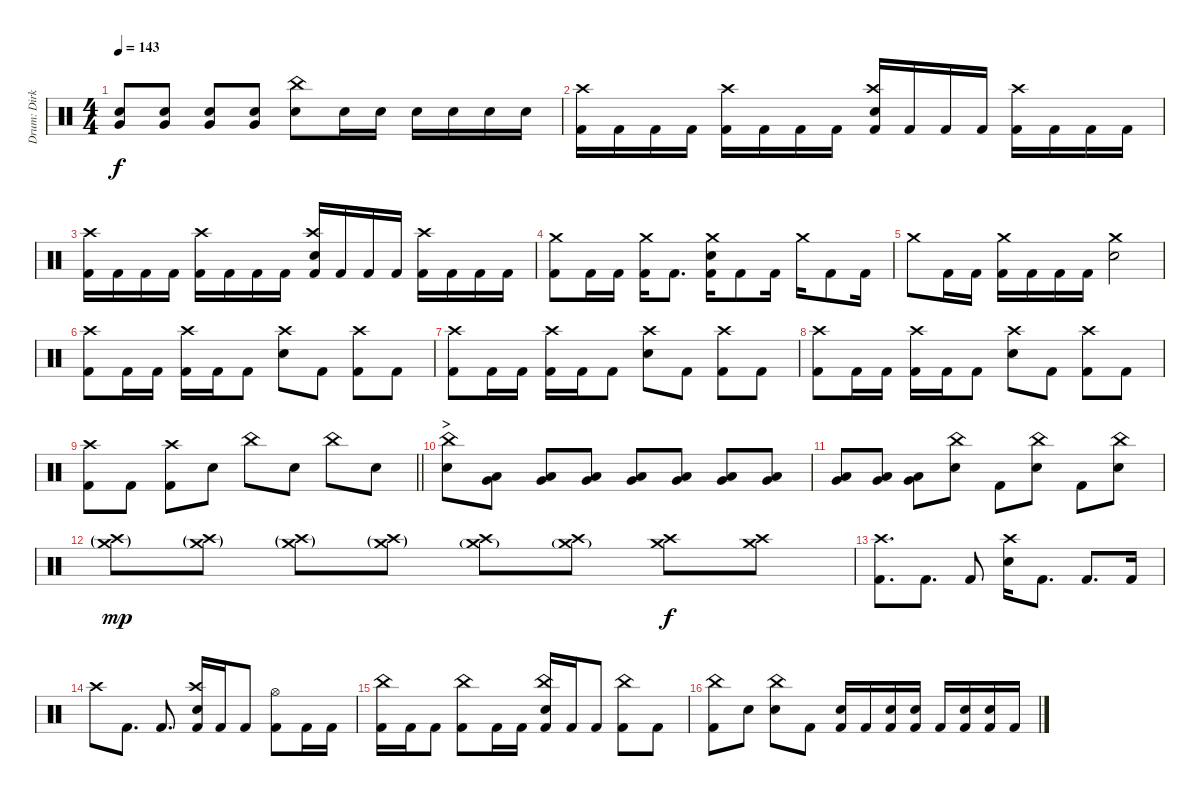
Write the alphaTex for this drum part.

\track ("Drum: Dirk" "Drum: Dirk") {instrument percussion}
\staff {score}
\articulation defaults
\ts (4 4)
\tempo 143
\clef neutral
\ks c
("Electric Snare (hit)" "Very Low Tom (hit)").8{dy f} ("Electric Snare (hit)" "Very Low Tom (hit)").8 ("Electric Snare (hit)" "Very Low Tom (hit)").8 ("Electric Snare (hit)" "Very Low Tom (hit)").8 ("China (hit)" "Electric Snare (hit)").8 "Electric Snare (hit)".16 "Electric Snare (hit)".16 "Electric Snare (hit)".16 "Electric Snare (hit)".16 "Electric Snare (hit)".16 "Electric Snare (hit)".16 |
("Crash high (hit)" "Kick (hit) 2").16 "Kick (hit) 2".16 "Kick (hit) 2".16 "Kick (hit) 2".16 ("Crash high (hit)" "Kick (hit) 2").16 "Kick (hit) 2".16 "Kick (hit) 2".16 "Kick (hit) 2".16 ("Crash high (hit)" "Electric Snare (hit)" "Kick (hit) 2").16 "Kick (hit) 2".16 "Kick (hit) 2".16 "Kick (hit) 2".16 ("Crash high (hit)" "Kick (hit) 2").16 "Kick (hit) 2".16 "Kick (hit) 2".16 "Kick (hit) 2".16 |
("Crash high (hit)" "Kick (hit) 2").16 "Kick (hit) 2".16 "Kick (hit) 2".16 "Kick (hit) 2".16 ("Crash high (hit)" "Kick (hit) 2").16 "Kick (hit) 2".16 "Kick (hit) 2".16 "Kick (hit) 2".16 ("Crash high (hit)" "Electric Snare (hit)" "Kick (hit) 2").16 "Kick (hit) 2".16 "Kick (hit) 2".16 "Kick (hit) 2".16 ("Crash high (hit)" "Kick (hit) 2").16 "Kick (hit) 2".16 "Kick (hit) 2".16 "Kick (hit) 2".16 |
("Crash medium (hit)" "Kick (hit) 2").8 "Kick (hit) 2".16 "Kick (hit) 2".16 ("Crash medium (hit)" "Kick (hit) 2").16 "Kick (hit) 2".8{d} ("Crash medium (hit)" "Electric Snare (hit)" "Kick (hit) 2").16 "Kick (hit) 2".8 "Kick (hit) 2".16 "Crash medium (hit)".16 "Kick (hit) 2".8 "Kick (hit) 2".16 |
"Crash medium (hit)".8 "Kick (hit) 2".16 "Kick (hit) 2".16 ("Crash medium (hit)" "Kick (hit) 2").16 "Kick (hit) 2".16 "Kick (hit) 2".16 "Kick (hit) 2".16 ("Crash medium (hit)" "Electric Snare (hit)").2 |
("Crash high (hit)" "Kick (hit) 2").8 "Kick (hit) 2".16 "Kick (hit) 2".16 ("Crash high (hit)" "Kick (hit) 2").16 "Kick (hit) 2".16 "Kick (hit) 2".8 ("Crash high (hit)" "Electric Snare (hit)").8 "Kick (hit) 2".8 ("Crash high (hit)" "Kick (hit) 2").8 "Kick (hit) 2".8 |
("Crash high (hit)" "Kick (hit) 2").8 "Kick (hit) 2".16 "Kick (hit) 2".16 ("Crash high (hit)" "Kick (hit) 2").16 "Kick (hit) 2".16 "Kick (hit) 2".8 ("Crash high (hit)" "Electric Snare (hit)").8 "Kick (hit) 2".8 ("Crash high (hit)" "Kick (hit) 2").8 "Kick (hit) 2".8 |
("Crash high (hit)" "Kick (hit) 2").8 "Kick (hit) 2".16 "Kick (hit) 2".16 ("Crash high (hit)" "Kick (hit) 2").16 "Kick (hit) 2".16 "Kick (hit) 2".8 ("Crash high (hit)" "Electric Snare (hit)").8 "Kick (hit) 2".8 ("Crash high (hit)" "Kick (hit) 2").8 "Kick (hit) 2".8 |
\barLineRight lightlight
("Crash high (hit)" "Kick (hit) 2").8 "Kick (hit) 2".8 ("Crash high (hit)" "Kick (hit) 2").8 "Electric Snare (hit)".8 "China (hit)".8 "Electric Snare (hit)".8 "China (hit)".8 "Electric Snare (hit)".8 |
\section ("" ">")
("China (hit)" "Electric Snare (hit)").8 ("Low Tom (hit)" "Very Low Tom (hit)").8 ("Low Tom (hit)" "Very Low Tom (hit)").8 ("Low Tom (hit)" "Very Low Tom (hit)").8 ("Low Tom (hit)" "Very Low Tom (hit)").8 ("Low Tom (hit)" "Very Low Tom (hit)").8 ("Low Tom (hit)" "Very Low Tom (hit)").8 ("Low Tom (hit)" "Very Low Tom (hit)").8 |
("Low Tom (hit)" "Very Low Tom (hit)").8 ("Low Tom (hit)" "Very Low Tom (hit)").8 ("Low Tom (hit)" "Very Low Tom (hit)").8 ("China (hit)" "Electric Snare (hit)").8 "Kick (hit) 2".8 ("China (hit)" "Electric Snare (hit)").8 "Kick (hit) 2".8 ("China (hit)" "Electric Snare (hit)").8 |
("Crash high (hit)"{g} "Crash medium (hit)"{g}).8{dy mp} ("Crash high (hit)"{g} "Crash medium (hit)"{g}).8 ("Crash high (hit)"{g} "Crash medium (hit)"{g}).8 ("Crash high (hit)"{g} "Crash medium (hit)"{g}).8 ("Crash high (hit)" "Crash medium (hit)"{g}).8 ("Crash high (hit)" "Crash medium (hit)"{g}).8 ("Crash high (hit)" "Crash medium (hit)").8{dy f} ("Crash high (hit)" "Crash medium (hit)").8 |
("Crash high (hit)" "Kick (hit) 2").8{d} "Kick (hit) 2".8{d} "Kick (hit) 2".8 ("Crash high (hit)" "Electric Snare (hit)").16 "Kick (hit) 2".8{d} "Kick (hit) 2".8{d} "Kick (hit) 2".16 |
"Crash high (hit)".8 "Kick (hit) 2".8{d} "Kick (hit) 2".8{d} ("Crash high (hit)" "Electric Snare (hit)" "Kick (hit) 2").16 "Kick (hit) 2".16 "Kick (hit) 2".8 ("Hi-Hat (open)" "Kick (hit) 2").8 "Kick (hit) 2".16 "Kick (hit) 2".16 |
("China (hit)" "Kick (hit) 2").16 "Kick (hit) 2".16 "Kick (hit) 2".8 ("China (hit)" "Kick (hit) 2").8 "Kick (hit) 2".16 "Kick (hit) 2".16 ("China (hit)" "Electric Snare (hit)" "Kick (hit) 2").16 "Kick (hit) 2".16 "Kick (hit) 2".8 ("China (hit)" "Kick (hit) 2").8 "Kick (hit) 2".8 |
("China (hit)" "Kick (hit) 2").8 "Electric Snare (hit)".8 ("China (hit)" "Electric Snare (hit)").8 "Kick (hit) 2".8 ("Electric Snare (hit)" "Kick (hit) 2").16 "Kick (hit) 2".16 ("Electric Snare (hit)" "Kick (hit) 2").16 ("Electric Snare (hit)" "Kick (hit) 2").16 "Kick (hit) 2".16 ("Electric Snare (hit)" "Kick (hit) 2").16 ("Electric Snare (hit)" "Kick (hit) 2").16 "Kick (hit) 2".16
